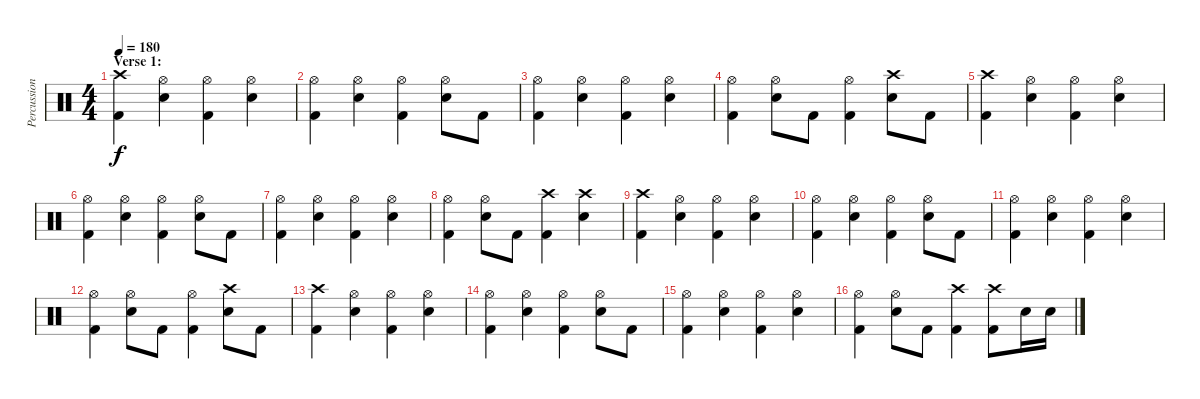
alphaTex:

\track ("Percussion" "Percussion") {instrument percussion}
\staff {score}
\articulation defaults
\ts (4 4)
\section ("" "Verse 1:")
\tempo 180
\clef neutral
\ks c
("Crash high (hit)" "Kick (hit) 2").4{dy f} ("Hi-Hat (open)" "Electric Snare (hit)").4 ("Hi-Hat (open)" "Kick (hit) 2").4 ("Hi-Hat (open)" "Electric Snare (hit)").4 |
("Hi-Hat (open)" "Kick (hit) 2").4 ("Hi-Hat (open)" "Electric Snare (hit)").4 ("Hi-Hat (open)" "Kick (hit) 2").4 ("Hi-Hat (open)" "Electric Snare (hit)").8 "Kick (hit) 2".8 |
("Hi-Hat (open)" "Kick (hit) 2").4 ("Hi-Hat (open)" "Electric Snare (hit)").4 ("Hi-Hat (open)" "Kick (hit) 2").4 ("Hi-Hat (open)" "Electric Snare (hit)").4 |
("Hi-Hat (open)" "Kick (hit) 2").4 ("Hi-Hat (open)" "Electric Snare (hit)").8 "Kick (hit) 2".8 ("Hi-Hat (open)" "Kick (hit) 2").4 ("Crash high (hit)" "Electric Snare (hit)").8 "Kick (hit) 2".8 |
("Crash high (hit)" "Kick (hit) 2").4 ("Hi-Hat (open)" "Electric Snare (hit)").4 ("Hi-Hat (open)" "Kick (hit) 2").4 ("Hi-Hat (open)" "Electric Snare (hit)").4 |
("Hi-Hat (open)" "Kick (hit) 2").4 ("Hi-Hat (open)" "Electric Snare (hit)").4 ("Hi-Hat (open)" "Kick (hit) 2").4 ("Hi-Hat (open)" "Electric Snare (hit)").8 "Kick (hit) 2".8 |
("Hi-Hat (open)" "Kick (hit) 2").4 ("Hi-Hat (open)" "Electric Snare (hit)").4 ("Hi-Hat (open)" "Kick (hit) 2").4 ("Hi-Hat (open)" "Electric Snare (hit)").4 |
("Hi-Hat (open)" "Kick (hit) 2").4 ("Hi-Hat (open)" "Electric Snare (hit)").8 "Kick (hit) 2".8 ("Crash high (hit)" "Kick (hit) 2").4 ("Crash high (hit)" "Electric Snare (hit)").4 |
("Crash high (hit)" "Kick (hit) 2").4 ("Hi-Hat (open)" "Electric Snare (hit)").4 ("Hi-Hat (open)" "Kick (hit) 2").4 ("Hi-Hat (open)" "Electric Snare (hit)").4 |
("Hi-Hat (open)" "Kick (hit) 2").4 ("Hi-Hat (open)" "Electric Snare (hit)").4 ("Hi-Hat (open)" "Kick (hit) 2").4 ("Hi-Hat (open)" "Electric Snare (hit)").8 "Kick (hit) 2".8 |
("Hi-Hat (open)" "Kick (hit) 2").4 ("Hi-Hat (open)" "Electric Snare (hit)").4 ("Hi-Hat (open)" "Kick (hit) 2").4 ("Hi-Hat (open)" "Electric Snare (hit)").4 |
("Hi-Hat (open)" "Kick (hit) 2").4 ("Hi-Hat (open)" "Electric Snare (hit)").8 "Kick (hit) 2".8 ("Hi-Hat (open)" "Kick (hit) 2").4 ("Crash high (hit)" "Electric Snare (hit)").8 "Kick (hit) 2".8 |
("Crash high (hit)" "Kick (hit) 2").4 ("Hi-Hat (open)" "Electric Snare (hit)").4 ("Hi-Hat (open)" "Kick (hit) 2").4 ("Hi-Hat (open)" "Electric Snare (hit)").4 |
("Hi-Hat (open)" "Kick (hit) 2").4 ("Hi-Hat (open)" "Electric Snare (hit)").4 ("Hi-Hat (open)" "Kick (hit) 2").4 ("Hi-Hat (open)" "Electric Snare (hit)").8 "Kick (hit) 2".8 |
("Hi-Hat (open)" "Kick (hit) 2").4 ("Hi-Hat (open)" "Electric Snare (hit)").4 ("Hi-Hat (open)" "Kick (hit) 2").4 ("Hi-Hat (open)" "Electric Snare (hit)").4 |
("Hi-Hat (open)" "Kick (hit) 2").4 ("Hi-Hat (open)" "Electric Snare (hit)").8 "Kick (hit) 2".8 ("Crash high (hit)" "Kick (hit) 2").4 ("Crash high (hit)" "Kick (hit) 2").8 "Electric Snare (hit)".16 "Electric Snare (hit)".16
